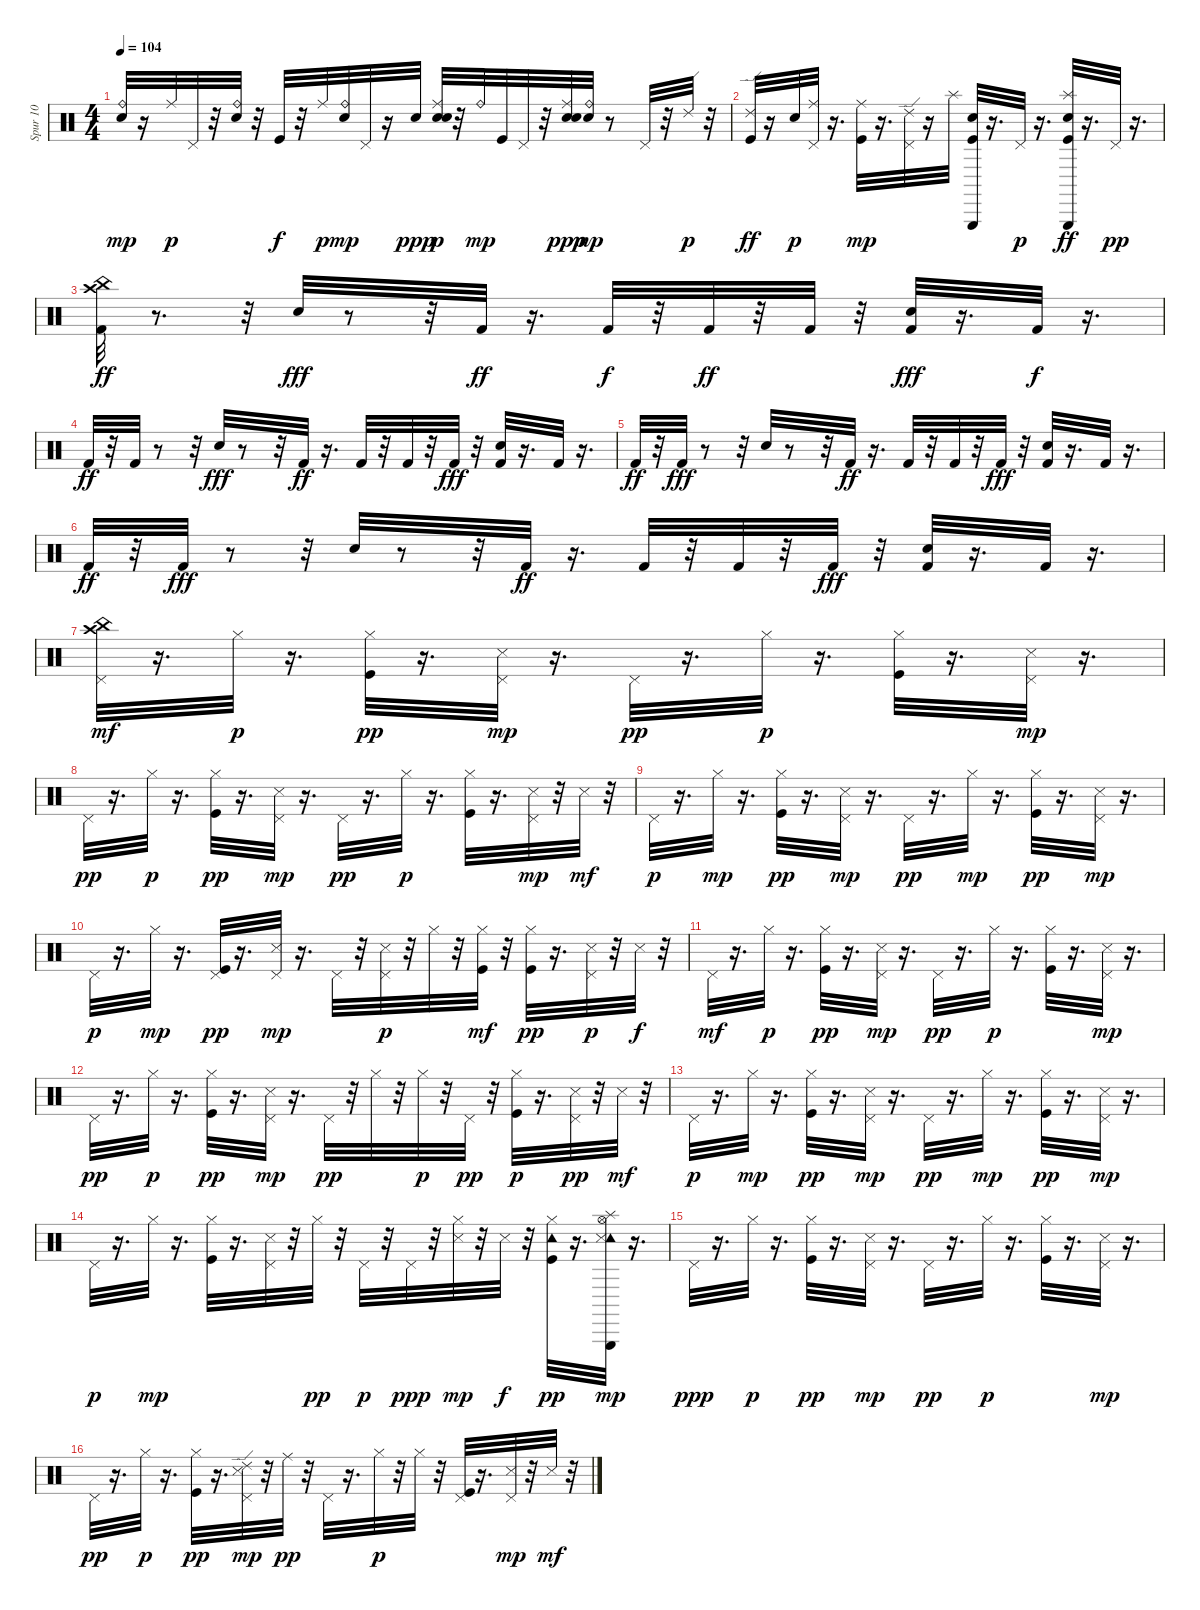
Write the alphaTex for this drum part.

\track ("Spur 10" "Spur 10") {instrument percussion}
\staff {score}
\articulation defaults
\ts (4 4)
\tempo 104
\clef neutral
\ks c
("Electric Snare (hit)" "Ride (bell)").32{dy mp} r.16 "Ride (middle)".32{dy p} "Pedal Hi-Hat (hit)".32 r.32 ("Ride (bell)" "Electric Snare (hit)").32 r.32 "Kick (hit)".32{dy f} r.32 "Ride (middle)".32{dy p} ("Electric Snare (hit)" "Ride (bell)").32{dy mp} "Pedal Hi-Hat (hit)".32 r.16 "Electric Snare (hit)".32{dy ppp} ("Electric Snare (hit)" "Ride (middle)" "Electric Snare (hit)").32{dy p} r.32 "Ride (bell)".32{dy mp} "Kick (hit)".32 "Pedal Hi-Hat (hit)".32 r.32 ("Electric Snare (hit)" "Ride (middle)" "Electric Snare (hit)").32{dy ppp} ("Ride (bell)" "Electric Snare (hit)").32{dy mp} r.8 "Pedal Hi-Hat (hit)".32 r.32 "Ride (edge) 2".32{dy p} r.32 |
("Kick (hit)" "Ride (edge) 2").32{dy ff} r.16 "Electric Snare (hit)".32{dy p} ("Ride (middle)" "Pedal Hi-Hat (hit)").32 r.16{d} ("Kick (hit)" "Ride (middle)").32{dy mp} r.16{d} ("Pedal Hi-Hat (hit)" "Ride (edge) 2").32 r.16 "Splash (hit)".32 ("Kick (hit)" "Triangle (hit)" "Electric Snare (hit)").32 r.16{d} "Pedal Hi-Hat (hit)".32{dy p} r.16{d} ("Triangle (hit)" "Kick (hit)" "Splash (hit)" "Electric Snare (hit)").32{dy ff} r.16{d} "Pedal Hi-Hat (hit)".32{dy pp} r.16{d} |
("Kick (hit) 2" "China (hit)" "Crash high (hit)").32{dy ff} r.8{d} r.32 "Snare (hit) 2".32{dy fff} r.8 r.32 "Kick (hit) 2".32{dy ff} r.16{d} "Kick (hit) 2".32{dy f} r.32 "Kick (hit) 2".32{dy ff} r.32 "Kick (hit) 2".32 r.32 ("Kick (hit) 2" "Snare (hit) 2").32{dy fff} r.16{d} "Kick (hit) 2".32{dy f} r.16{d} |
"Kick (hit) 2".32{dy ff} r.32 "Kick (hit) 2".32 r.8 r.32 "Snare (hit) 2".32{dy fff} r.8 r.32 "Kick (hit) 2".32{dy ff} r.16{d} "Kick (hit) 2".32 r.32 "Kick (hit) 2".32 r.32 "Kick (hit) 2".32{dy fff} r.32 ("Kick (hit) 2" "Snare (hit) 2").32 r.16{d} "Kick (hit) 2".32 r.16{d} |
"Kick (hit) 2".32{dy ff} r.32 "Kick (hit) 2".32{dy fff} r.8 r.32 "Snare (hit) 2".32 r.8 r.32 "Kick (hit) 2".32{dy ff} r.16{d} "Kick (hit) 2".32 r.32 "Kick (hit) 2".32 r.32 "Kick (hit) 2".32{dy fff} r.32 ("Kick (hit) 2" "Snare (hit) 2").32 r.16{d} "Kick (hit) 2".32 r.16{d} |
"Kick (hit) 2".32{dy ff} r.32 "Kick (hit) 2".32{dy fff} r.8 r.32 "Snare (hit) 2".32 r.8 r.32 "Kick (hit) 2".32{dy ff} r.16{d} "Kick (hit) 2".32 r.32 "Kick (hit) 2".32 r.32 "Kick (hit) 2".32{dy fff} r.32 ("Kick (hit) 2" "Snare (hit) 2").32 r.16{d} "Kick (hit) 2".32 r.16{d} |
("Pedal Hi-Hat (hit)" "China (hit)" "Crash high (hit)").32{dy mf} r.16{d} "Hi-Hat (closed)".32{dy p} r.16{d} ("Kick (hit)" "Hi-Hat (closed)").32{dy pp} r.16{d} ("Pedal Hi-Hat (hit)" "Snare (side stick) 3").32{dy mp} r.16{d} "Pedal Hi-Hat (hit)".32{dy pp} r.16{d} "Hi-Hat (closed)".32{dy p} r.16{d} ("Kick (hit)" "Hi-Hat (closed)").32 r.16{d} ("Pedal Hi-Hat (hit)" "Snare (side stick) 3").32{dy mp} r.16{d} |
"Pedal Hi-Hat (hit)".32{dy pp} r.16{d} "Hi-Hat (closed)".32{dy p} r.16{d} ("Kick (hit)" "Hi-Hat (closed)").32{dy pp} r.16{d} ("Pedal Hi-Hat (hit)" "Snare (side stick) 3").32{dy mp} r.16{d} "Pedal Hi-Hat (hit)".32{dy pp} r.16{d} "Hi-Hat (closed)".32{dy p} r.16{d} ("Kick (hit)" "Hi-Hat (closed)").32 r.16{d} ("Pedal Hi-Hat (hit)" "Snare (side stick) 3").32{dy mp} r.32 "Snare (side stick) 3".32{dy mf} r.32 |
"Pedal Hi-Hat (hit)".32{dy p} r.16{d} "Hi-Hat (closed)".32{dy mp} r.16{d} ("Kick (hit)" "Hi-Hat (closed)").32{dy pp} r.16{d} ("Pedal Hi-Hat (hit)" "Snare (side stick) 3").32{dy mp} r.16{d} "Pedal Hi-Hat (hit)".32{dy pp} r.16{d} "Hi-Hat (closed)".32{dy mp} r.16{d} ("Kick (hit)" "Hi-Hat (closed)").32{dy pp} r.16{d} ("Pedal Hi-Hat (hit)" "Snare (side stick) 3").32{dy mp} r.16{d} |
"Pedal Hi-Hat (hit)".32{dy p} r.16{d} "Hi-Hat (closed)".32{dy mp} r.16{d} ("Kick (hit)" "Pedal Hi-Hat (hit)").32{dy pp} r.16{d} ("Pedal Hi-Hat (hit)" "Snare (side stick) 3").32{dy mp} r.16{d} "Pedal Hi-Hat (hit)".32 r.32 ("Pedal Hi-Hat (hit)" "Snare (side stick) 3").32{dy p} r.32 "Hi-Hat (closed)".32 r.32 ("Kick (hit)" "Hi-Hat (closed)").32{dy mf} r.32 ("Kick (hit)" "Hi-Hat (closed)").32{dy pp} r.16{d} ("Pedal Hi-Hat (hit)" "Snare (side stick) 3").32{dy p} r.32 "Snare (side stick) 3".32{dy f} r.32 |
"Pedal Hi-Hat (hit)".32{dy mf} r.16{d} "Hi-Hat (closed)".32{dy p} r.16{d} ("Kick (hit)" "Hi-Hat (closed)").32{dy pp} r.16{d} ("Pedal Hi-Hat (hit)" "Snare (side stick) 3").32{dy mp} r.16{d} "Pedal Hi-Hat (hit)".32{dy pp} r.16{d} "Hi-Hat (closed)".32{dy p} r.16{d} ("Kick (hit)" "Hi-Hat (closed)").32 r.16{d} ("Pedal Hi-Hat (hit)" "Snare (side stick) 3").32{dy mp} r.16{d} |
"Pedal Hi-Hat (hit)".32{dy pp} r.16{d} "Hi-Hat (closed)".32{dy p} r.16{d} ("Kick (hit)" "Hi-Hat (closed)").32{dy pp} r.16{d} ("Pedal Hi-Hat (hit)" "Snare (side stick) 3").32{dy mp} r.16{d} "Pedal Hi-Hat (hit)".32{dy pp} r.32 "Hi-Hat (closed)".32 r.32 "Hi-Hat (closed)".32{dy p} r.32 "Pedal Hi-Hat (hit)".32{dy pp} r.32 ("Kick (hit)" "Hi-Hat (closed)").32{dy p} r.16{d} ("Pedal Hi-Hat (hit)" "Snare (side stick) 3").32{dy pp} r.32 "Snare (side stick) 3".32{dy mf} r.32 |
"Pedal Hi-Hat (hit)".32{dy p} r.16{d} "Hi-Hat (closed)".32{dy mp} r.16{d} ("Kick (hit)" "Hi-Hat (closed)").32{dy pp} r.16{d} ("Pedal Hi-Hat (hit)" "Snare (side stick) 3").32{dy mp} r.16{d} "Pedal Hi-Hat (hit)".32{dy pp} r.16{d} "Hi-Hat (closed)".32{dy mp} r.16{d} ("Kick (hit)" "Hi-Hat (closed)").32{dy pp} r.16{d} ("Pedal Hi-Hat (hit)" "Snare (side stick) 3").32{dy mp} r.16{d} |
"Pedal Hi-Hat (hit)".32{dy p} r.16{d} "Hi-Hat (closed)".32{dy mp} r.16{d} ("Kick (hit)" "Hi-Hat (closed)").32 r.16{d} ("Pedal Hi-Hat (hit)" "Snare (side stick) 3").32 r.32 "Hi-Hat (closed)".32{dy pp} r.32 "Pedal Hi-Hat (hit)".32{dy p} r.32 "Pedal Hi-Hat (hit)".32{dy ppp} r.32 ("Snare (side stick) 3" "Hi-Hat (closed)").32{dy mp} r.32 "Snare (side stick) 3".32{dy f} r.32 ("Tambourine (hit)" "Kick (hit)" "Hi-Hat (closed)").32{dy pp} r.16{d} ("Tambourine (hit)" "Splash (hit)" "Hi-Hat (open)" "Snare (side stick) 3" "Triangle (hit)").32{dy mp} r.16{d} |
"Pedal Hi-Hat (hit)".32{dy ppp} r.16{d} "Hi-Hat (closed)".32{dy p} r.16{d} ("Kick (hit)" "Hi-Hat (closed)").32{dy pp} r.16{d} ("Pedal Hi-Hat (hit)" "Snare (side stick) 3").32{dy mp} r.16{d} "Pedal Hi-Hat (hit)".32{dy pp} r.16{d} "Hi-Hat (closed)".32{dy p} r.16{d} ("Kick (hit)" "Hi-Hat (closed)").32 r.16{d} ("Pedal Hi-Hat (hit)" "Snare (side stick) 3").32{dy mp} r.16{d} |
"Pedal Hi-Hat (hit)".32{dy pp} r.16{d} "Hi-Hat (closed)".32{dy p} r.16{d} ("Kick (hit)" "Hi-Hat (closed)").32{dy pp} r.16{d} ("Pedal Hi-Hat (hit)" "Ride (edge) 2" "Snare (side stick) 3").32{dy mp} r.32 "Ride (middle)".32{dy pp} r.32 "Pedal Hi-Hat (hit)".32 r.16{d} "Hi-Hat (closed)".32{dy p} r.32 "Hi-Hat (closed)".32 r.32 ("Kick (hit)" "Pedal Hi-Hat (hit)").32 r.16{d} ("Pedal Hi-Hat (hit)" "Snare (side stick) 3").32{dy mp} r.32 "Snare (side stick) 3".32{dy mf} r.32
